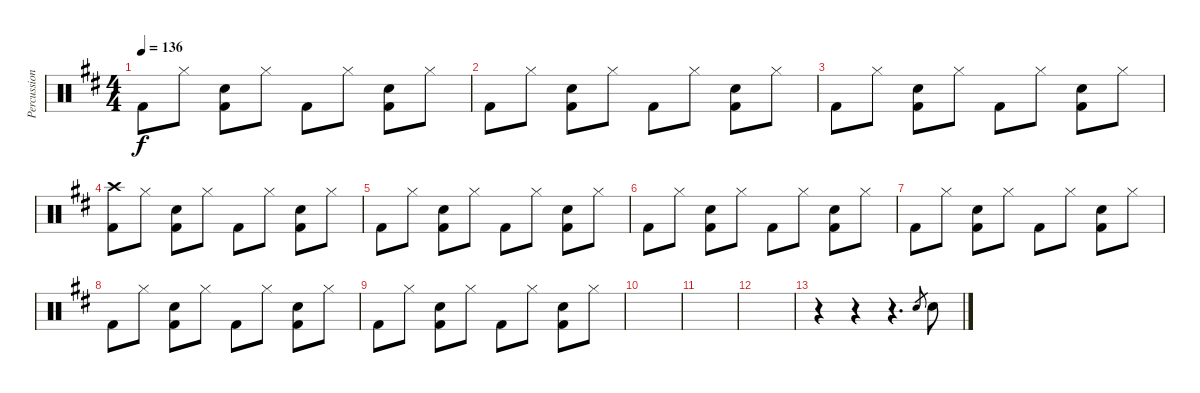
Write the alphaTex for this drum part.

\track ("Percussion" "Percussion") {instrument percussion}
\staff {score}
\articulation defaults
\ts (4 4)
\tempo 136
\clef neutral
\ks d "Kick (hit) 2".8{dy f} "Hi-Hat (closed)".8
("Electric Snare (hit)" "Kick (hit) 2").8 "Hi-Hat (closed)".8 "Kick (hit) 2".8 "Hi-Hat (closed)".8 ("Electric Snare (hit)" "Kick (hit) 2").8 "Hi-Hat (closed)".8 |
"Kick (hit) 2".8 "Hi-Hat (closed)".8 ("Electric Snare (hit)" "Kick (hit) 2").8 "Hi-Hat (closed)".8 "Kick (hit) 2".8 "Hi-Hat (closed)".8 ("Electric Snare (hit)" "Kick (hit) 2").8 "Hi-Hat (closed)".8 |
"Kick (hit) 2".8 "Hi-Hat (closed)".8 ("Electric Snare (hit)" "Kick (hit) 2").8 "Hi-Hat (closed)".8 "Kick (hit) 2".8 "Hi-Hat (closed)".8 ("Electric Snare (hit)" "Kick (hit) 2").8 "Hi-Hat (closed)".8 |
("Crash high (hit)" "Kick (hit) 2").8 "Hi-Hat (closed)".8 ("Electric Snare (hit)" "Kick (hit) 2").8 "Hi-Hat (closed)".8 "Kick (hit) 2".8 "Hi-Hat (closed)".8 ("Electric Snare (hit)" "Kick (hit) 2").8 "Hi-Hat (closed)".8 |
"Kick (hit) 2".8 "Hi-Hat (closed)".8 ("Electric Snare (hit)" "Kick (hit) 2").8 "Hi-Hat (closed)".8 "Kick (hit) 2".8 "Hi-Hat (closed)".8 ("Electric Snare (hit)" "Kick (hit) 2").8 "Hi-Hat (closed)".8 |
"Kick (hit) 2".8 "Hi-Hat (closed)".8 ("Electric Snare (hit)" "Kick (hit) 2").8 "Hi-Hat (closed)".8 "Kick (hit) 2".8 "Hi-Hat (closed)".8 ("Electric Snare (hit)" "Kick (hit) 2").8 "Hi-Hat (closed)".8 |
"Kick (hit) 2".8 "Hi-Hat (closed)".8 ("Electric Snare (hit)" "Kick (hit) 2").8 "Hi-Hat (closed)".8 "Kick (hit) 2".8 "Hi-Hat (closed)".8 ("Electric Snare (hit)" "Kick (hit) 2").8 "Hi-Hat (closed)".8 |
"Kick (hit) 2".8 "Hi-Hat (closed)".8 ("Electric Snare (hit)" "Kick (hit) 2").8 "Hi-Hat (closed)".8 "Kick (hit) 2".8 "Hi-Hat (closed)".8 ("Electric Snare (hit)" "Kick (hit) 2").8 "Hi-Hat (closed)".8 |
"Kick (hit) 2".8 "Hi-Hat (closed)".8 ("Electric Snare (hit)" "Kick (hit) 2").8 "Hi-Hat (closed)".8 "Kick (hit) 2".8 "Hi-Hat (closed)".8 ("Electric Snare (hit)" "Kick (hit) 2").8 "Hi-Hat (closed)".8 |
|
|
|
r.4 r.4 r.4{d} "Electric Snare (hit)".8{gr} "Electric Snare (hit)".8
